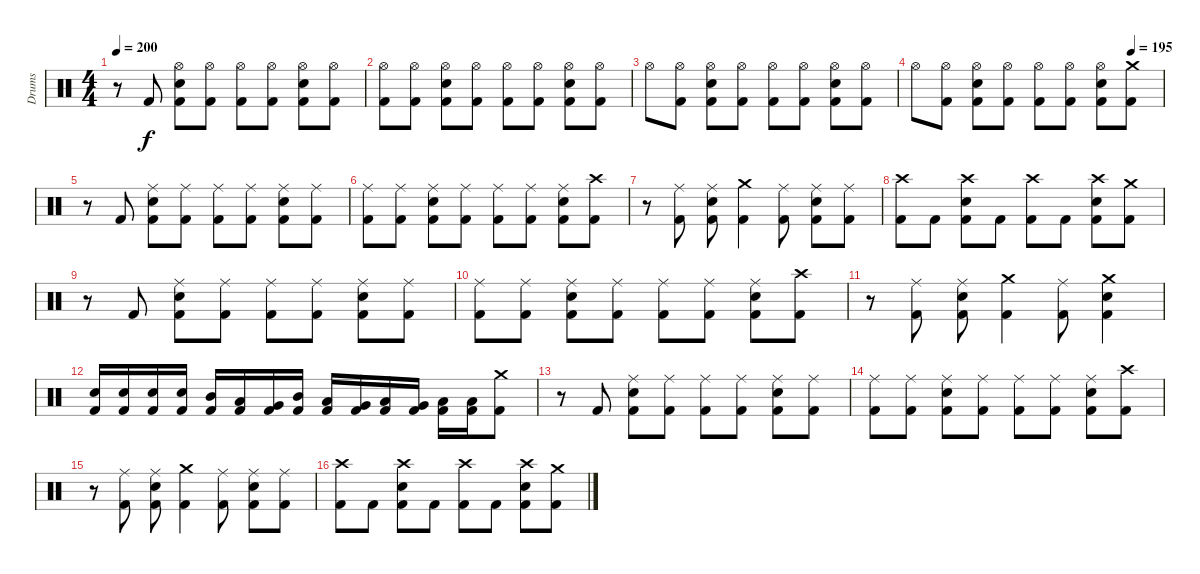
\track ("Drums" "Drums") {instrument percussion}
\staff {score}
\articulation defaults
\ts (4 4)
\tempo 200
\clef neutral
\ks c
r.8{dy f} "Kick (hit) 2".8 ("Hi-Hat (open)" "Electric Snare (hit)" "Kick (hit) 2").8 ("Hi-Hat (open)" "Kick (hit) 2").8 ("Hi-Hat (open)" "Kick (hit) 2").8 ("Hi-Hat (open)" "Kick (hit) 2").8 ("Hi-Hat (open)" "Electric Snare (hit)" "Kick (hit) 2").8 ("Hi-Hat (open)" "Kick (hit) 2").8 |
("Hi-Hat (open)" "Kick (hit) 2").8 ("Hi-Hat (open)" "Kick (hit) 2").8 ("Hi-Hat (open)" "Electric Snare (hit)" "Kick (hit) 2").8 ("Hi-Hat (open)" "Kick (hit) 2").8 ("Hi-Hat (open)" "Kick (hit) 2").8 ("Hi-Hat (open)" "Kick (hit) 2").8 ("Hi-Hat (open)" "Electric Snare (hit)" "Kick (hit) 2").8 ("Hi-Hat (open)" "Kick (hit) 2").8 |
"Hi-Hat (open)".8 ("Hi-Hat (open)" "Kick (hit) 2").8 ("Hi-Hat (open)" "Electric Snare (hit)" "Kick (hit) 2").8 ("Hi-Hat (open)" "Kick (hit) 2").8 ("Hi-Hat (open)" "Kick (hit) 2").8 ("Hi-Hat (open)" "Kick (hit) 2").8 ("Hi-Hat (open)" "Electric Snare (hit)" "Kick (hit) 2").8 ("Hi-Hat (open)" "Kick (hit) 2").8 |
\tempo (195 0.875)
"Hi-Hat (open)".8 ("Hi-Hat (open)" "Kick (hit) 2").8 ("Hi-Hat (open)" "Electric Snare (hit)" "Kick (hit) 2").8 ("Hi-Hat (open)" "Kick (hit) 2").8 ("Hi-Hat (open)" "Kick (hit) 2").8 ("Hi-Hat (open)" "Kick (hit) 2").8 ("Hi-Hat (open)" "Electric Snare (hit)" "Kick (hit) 2").8 ("Crash medium (hit)" "Kick (hit) 2").8 |
r.8 "Kick (hit) 2".8 ("Ride (middle)" "Electric Snare (hit)" "Kick (hit) 2").8 ("Ride (middle)" "Kick (hit) 2").8 ("Ride (middle)" "Kick (hit) 2").8 ("Ride (middle)" "Kick (hit) 2").8 ("Ride (middle)" "Electric Snare (hit)" "Kick (hit) 2").8 ("Ride (middle)" "Kick (hit) 2").8 |
("Ride (middle)" "Kick (hit) 2").8 ("Ride (middle)" "Kick (hit) 2").8 ("Ride (middle)" "Electric Snare (hit)" "Kick (hit) 2").8 ("Ride (middle)" "Kick (hit) 2").8 ("Ride (middle)" "Kick (hit) 2").8 ("Ride (middle)" "Kick (hit) 2").8 ("Ride (middle)" "Electric Snare (hit)" "Kick (hit) 2").8 ("Crash high (hit)" "Kick (hit) 2").8 |
r.8 ("Ride (middle)" "Kick (hit) 2").8 ("Ride (middle)" "Electric Snare (hit)" "Kick (hit) 2").8 ("Crash medium (hit)" "Kick (hit) 2").4 ("Ride (middle)" "Kick (hit) 2").8 ("Ride (middle)" "Electric Snare (hit)" "Kick (hit) 2").8 ("Ride (middle)" "Kick (hit) 2").8 |
("Crash high (hit)" "Kick (hit) 2").8 "Kick (hit) 2".8 ("Crash high (hit)" "Electric Snare (hit)" "Kick (hit) 2").8 "Kick (hit) 2".8 ("Crash high (hit)" "Kick (hit) 2").8 "Kick (hit) 2".8 ("Crash high (hit)" "Electric Snare (hit)" "Kick (hit) 2").8 ("Crash medium (hit)" "Kick (hit) 2").8 |
r.8 "Kick (hit) 2".8 ("Ride (middle)" "Electric Snare (hit)" "Kick (hit) 2").8 ("Ride (middle)" "Kick (hit) 2").8 ("Ride (middle)" "Kick (hit) 2").8 ("Ride (middle)" "Kick (hit) 2").8 ("Ride (middle)" "Electric Snare (hit)" "Kick (hit) 2").8 ("Ride (middle)" "Kick (hit) 2").8 |
("Ride (middle)" "Kick (hit) 2").8 ("Ride (middle)" "Kick (hit) 2").8 ("Ride (middle)" "Electric Snare (hit)" "Kick (hit) 2").8 ("Ride (middle)" "Kick (hit) 2").8 ("Ride (middle)" "Kick (hit) 2").8 ("Ride (middle)" "Kick (hit) 2").8 ("Ride (middle)" "Electric Snare (hit)" "Kick (hit) 2").8 ("Crash high (hit)" "Kick (hit) 2").8 |
r.8 ("Ride (middle)" "Kick (hit) 2").8 ("Ride (middle)" "Electric Snare (hit)" "Kick (hit) 2").8 ("Crash medium (hit)" "Kick (hit) 2").4 ("Ride (middle)" "Kick (hit) 2").8 ("Crash medium (hit)" "Electric Snare (hit)" "Kick (hit) 2").4 |
("Electric Snare (hit)" "Kick (hit) 2").16 ("Electric Snare (hit)" "Kick (hit) 2").16 ("Electric Snare (hit)" "Kick (hit) 2").16 ("Electric Snare (hit)" "Kick (hit) 2").16 ("Mid Tom (hit)" "Kick (hit) 2").16 ("Low Tom (hit)" "Kick (hit) 2").16 ("Very Low Tom (hit)" "Kick (hit) 2").16 ("Mid Tom (hit)" "Kick (hit) 2").16 ("Low Tom (hit)" "Kick (hit) 2").16 ("Very Low Tom (hit)" "Kick (hit) 2").16 ("Low Tom (hit)" "Kick (hit) 2").16 ("Very Low Tom (hit)" "Kick (hit) 2").16 ("Low Floor Tom (hit)" "Kick (hit) 2").16 ("Low Floor Tom (hit)" "Kick (hit) 2").16 ("Crash medium (hit)" "Kick (hit) 2").8 |
r.8 "Kick (hit) 2".8 ("Ride (middle)" "Electric Snare (hit)" "Kick (hit) 2").8 ("Ride (middle)" "Kick (hit) 2").8 ("Ride (middle)" "Kick (hit) 2").8 ("Ride (middle)" "Kick (hit) 2").8 ("Ride (middle)" "Electric Snare (hit)" "Kick (hit) 2").8 ("Ride (middle)" "Kick (hit) 2").8 |
("Ride (middle)" "Kick (hit) 2").8 ("Ride (middle)" "Kick (hit) 2").8 ("Ride (middle)" "Electric Snare (hit)" "Kick (hit) 2").8 ("Ride (middle)" "Kick (hit) 2").8 ("Ride (middle)" "Kick (hit) 2").8 ("Ride (middle)" "Kick (hit) 2").8 ("Ride (middle)" "Electric Snare (hit)" "Kick (hit) 2").8 ("Crash high (hit)" "Kick (hit) 2").8 |
r.8 ("Ride (middle)" "Kick (hit) 2").8 ("Ride (middle)" "Electric Snare (hit)" "Kick (hit) 2").8 ("Crash medium (hit)" "Kick (hit) 2").4 ("Ride (middle)" "Kick (hit) 2").8 ("Ride (middle)" "Electric Snare (hit)" "Kick (hit) 2").8 ("Ride (middle)" "Kick (hit) 2").8 |
("Crash high (hit)" "Kick (hit) 2").8 "Kick (hit) 2".8 ("Crash high (hit)" "Electric Snare (hit)" "Kick (hit) 2").8 "Kick (hit) 2".8 ("Crash high (hit)" "Kick (hit) 2").8 "Kick (hit) 2".8 ("Crash high (hit)" "Electric Snare (hit)" "Kick (hit) 2").8 ("Crash medium (hit)" "Kick (hit) 2").8
